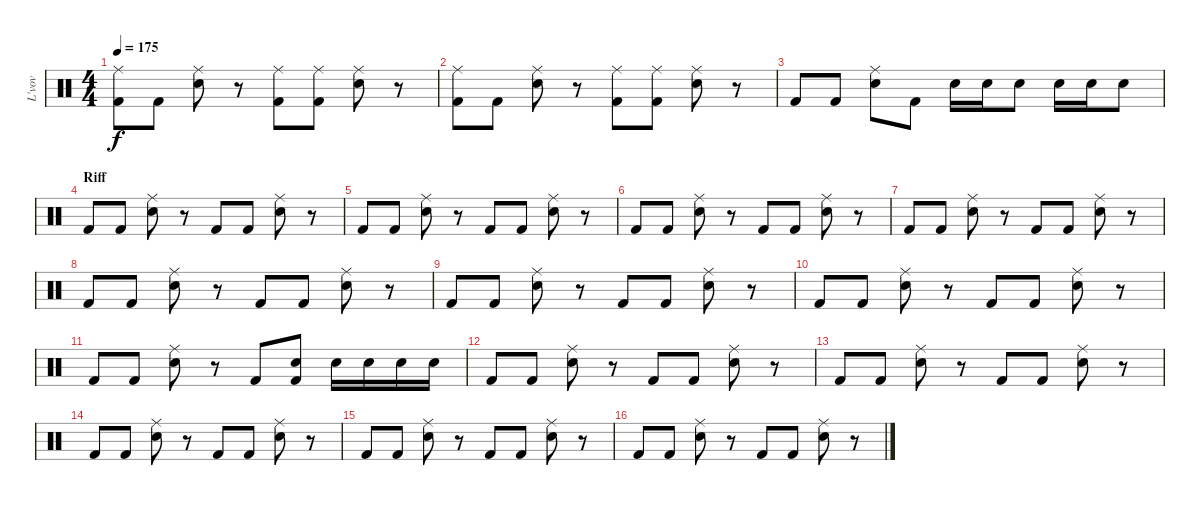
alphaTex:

\track ("L'vov" "L'vov") {instrument percussion}
\staff {score}
\articulation defaults
\ts (4 4)
\tempo 175
\clef neutral
\ks c
("Kick (hit) 2" "Ride (middle)").8{dy f} "Kick (hit) 2".8 ("Snare (hit) 2" "Ride (middle)").8 r.8 ("Kick (hit) 2" "Ride (middle)").8 ("Kick (hit) 2" "Ride (middle)").8 ("Snare (hit) 2" "Ride (middle)").8 r.8 |
("Kick (hit) 2" "Ride (middle)").8 "Kick (hit) 2".8 ("Snare (hit) 2" "Ride (middle)").8 r.8 ("Kick (hit) 2" "Ride (middle)").8 ("Kick (hit) 2" "Ride (middle)").8 ("Snare (hit) 2" "Ride (middle)").8 r.8 |
"Kick (hit) 2".8 "Kick (hit) 2".8 ("Snare (hit) 2" "Ride (middle)").8 "Kick (hit) 2".8 "Snare (hit) 2".16 "Snare (hit) 2".16 "Snare (hit) 2".8 "Snare (hit) 2".16 "Snare (hit) 2".16 "Snare (hit) 2".8 |
\section ("" "Riff")
"Kick (hit) 2".8 "Kick (hit) 2".8 ("Snare (hit) 2" "Ride (middle)").8 r.8 "Kick (hit) 2".8 "Kick (hit) 2".8 ("Snare (hit) 2" "Ride (middle)").8 r.8 |
"Kick (hit) 2".8 "Kick (hit) 2".8 ("Snare (hit) 2" "Ride (middle)").8 r.8 "Kick (hit) 2".8 "Kick (hit) 2".8 ("Snare (hit) 2" "Ride (middle)").8 r.8 |
"Kick (hit) 2".8 "Kick (hit) 2".8 ("Snare (hit) 2" "Ride (middle)").8 r.8 "Kick (hit) 2".8 "Kick (hit) 2".8 ("Snare (hit) 2" "Ride (middle)").8 r.8 |
"Kick (hit) 2".8 "Kick (hit) 2".8 ("Snare (hit) 2" "Ride (middle)").8 r.8 "Kick (hit) 2".8 "Kick (hit) 2".8 ("Snare (hit) 2" "Ride (middle)").8 r.8 |
"Kick (hit) 2".8 "Kick (hit) 2".8 ("Snare (hit) 2" "Ride (middle)").8 r.8 "Kick (hit) 2".8 "Kick (hit) 2".8 ("Snare (hit) 2" "Ride (middle)").8 r.8 |
"Kick (hit) 2".8 "Kick (hit) 2".8 ("Snare (hit) 2" "Ride (middle)").8 r.8 "Kick (hit) 2".8 "Kick (hit) 2".8 ("Snare (hit) 2" "Ride (middle)").8 r.8 |
"Kick (hit) 2".8 "Kick (hit) 2".8 ("Snare (hit) 2" "Ride (middle)").8 r.8 "Kick (hit) 2".8 "Kick (hit) 2".8 ("Snare (hit) 2" "Ride (middle)").8 r.8 |
"Kick (hit) 2".8 "Kick (hit) 2".8 ("Snare (hit) 2" "Ride (middle)").8 r.8 "Kick (hit) 2".8 ("Snare (hit) 2" "Kick (hit) 2").8 "Snare (hit) 2".16 "Snare (hit) 2".16 "Snare (hit) 2".16 "Snare (hit) 2".16 |
"Kick (hit) 2".8 "Kick (hit) 2".8 ("Snare (hit) 2" "Ride (middle)").8 r.8 "Kick (hit) 2".8 "Kick (hit) 2".8 ("Snare (hit) 2" "Ride (middle)").8 r.8 |
"Kick (hit) 2".8 "Kick (hit) 2".8 ("Snare (hit) 2" "Ride (middle)").8 r.8 "Kick (hit) 2".8 "Kick (hit) 2".8 ("Snare (hit) 2" "Ride (middle)").8 r.8 |
"Kick (hit) 2".8 "Kick (hit) 2".8 ("Snare (hit) 2" "Ride (middle)").8 r.8 "Kick (hit) 2".8 "Kick (hit) 2".8 ("Snare (hit) 2" "Ride (middle)").8 r.8 |
"Kick (hit) 2".8 "Kick (hit) 2".8 ("Snare (hit) 2" "Ride (middle)").8 r.8 "Kick (hit) 2".8 "Kick (hit) 2".8 ("Snare (hit) 2" "Ride (middle)").8 r.8 |
"Kick (hit) 2".8 "Kick (hit) 2".8 ("Snare (hit) 2" "Ride (middle)").8 r.8 "Kick (hit) 2".8 "Kick (hit) 2".8 ("Snare (hit) 2" "Ride (middle)").8 r.8
